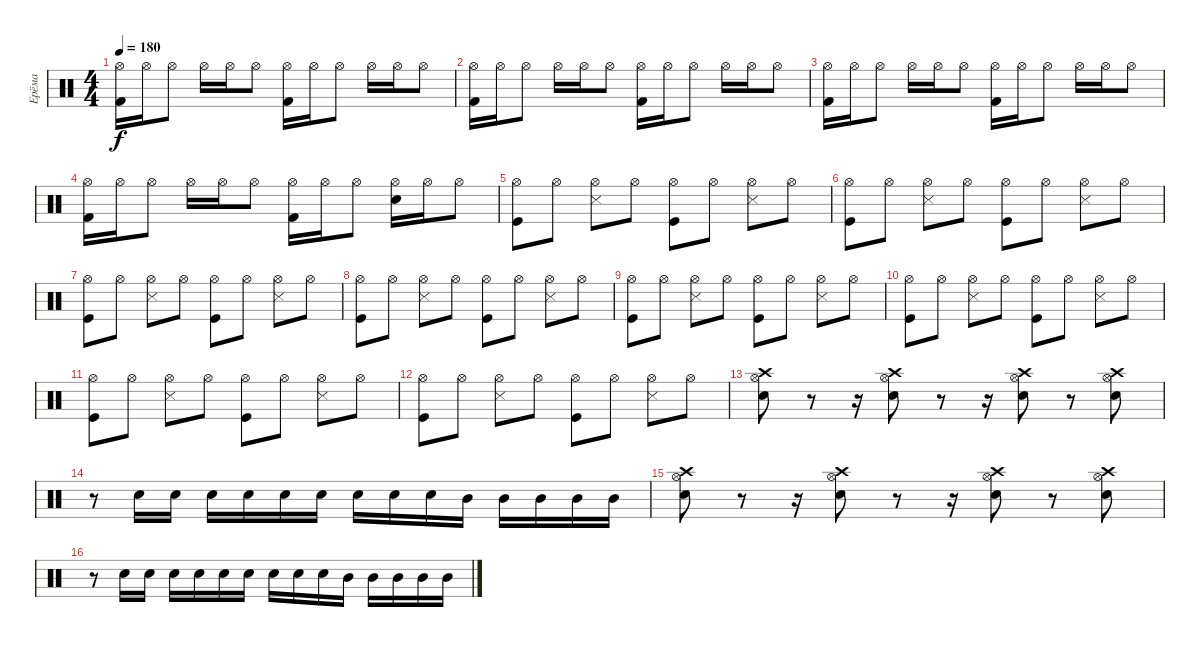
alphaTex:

\track ("Ерёма" "Ерёма") {instrument percussion}
\staff {score}
\articulation defaults
\ts (4 4)
\tempo 180
\clef neutral
\ks c
("Hi-Hat (open)" "Kick (hit) 2").16{dy f} "Hi-Hat (open)".16 "Hi-Hat (open)".8 "Hi-Hat (open)".16 "Hi-Hat (open)".16 "Hi-Hat (open)".8 ("Hi-Hat (open)" "Kick (hit) 2").16 "Hi-Hat (open)".16 "Hi-Hat (open)".8 "Hi-Hat (open)".16 "Hi-Hat (open)".16 "Hi-Hat (open)".8 |
("Hi-Hat (open)" "Kick (hit) 2").16 "Hi-Hat (open)".16 "Hi-Hat (open)".8 "Hi-Hat (open)".16 "Hi-Hat (open)".16 "Hi-Hat (open)".8 ("Hi-Hat (open)" "Kick (hit) 2").16 "Hi-Hat (open)".16 "Hi-Hat (open)".8 "Hi-Hat (open)".16 "Hi-Hat (open)".16 "Hi-Hat (open)".8 |
("Hi-Hat (open)" "Kick (hit) 2").16 "Hi-Hat (open)".16 "Hi-Hat (open)".8 "Hi-Hat (open)".16 "Hi-Hat (open)".16 "Hi-Hat (open)".8 ("Hi-Hat (open)" "Kick (hit) 2").16 "Hi-Hat (open)".16 "Hi-Hat (open)".8 "Hi-Hat (open)".16 "Hi-Hat (open)".16 "Hi-Hat (open)".8 |
("Hi-Hat (open)" "Kick (hit) 2").16 "Hi-Hat (open)".16 "Hi-Hat (open)".8 "Hi-Hat (open)".16 "Hi-Hat (open)".16 "Hi-Hat (open)".8 ("Hi-Hat (open)" "Kick (hit) 2").16 "Hi-Hat (open)".16 "Hi-Hat (open)".8 ("Hi-Hat (open)" "Electric Snare (hit)").16 "Hi-Hat (open)".16 "Hi-Hat (open)".8 |
("Hi-Hat (open)" "Kick (hit)").8 "Hi-Hat (open)".8 ("Hi-Hat (open)" "Snare (side stick) 3").8 "Hi-Hat (open)".8 ("Hi-Hat (open)" "Kick (hit)").8 "Hi-Hat (open)".8 ("Hi-Hat (open)" "Snare (side stick) 3").8 "Hi-Hat (open)".8 |
("Hi-Hat (open)" "Kick (hit)").8 "Hi-Hat (open)".8 ("Hi-Hat (open)" "Snare (side stick) 3").8 "Hi-Hat (open)".8 ("Hi-Hat (open)" "Kick (hit)").8 "Hi-Hat (open)".8 ("Hi-Hat (open)" "Snare (side stick) 3").8 "Hi-Hat (open)".8 |
("Hi-Hat (open)" "Kick (hit)").8 "Hi-Hat (open)".8 ("Hi-Hat (open)" "Snare (side stick) 3").8 "Hi-Hat (open)".8 ("Hi-Hat (open)" "Kick (hit)").8 "Hi-Hat (open)".8 ("Hi-Hat (open)" "Snare (side stick) 3").8 "Hi-Hat (open)".8 |
("Hi-Hat (open)" "Kick (hit)").8 "Hi-Hat (open)".8 ("Hi-Hat (open)" "Snare (side stick) 3").8 "Hi-Hat (open)".8 ("Hi-Hat (open)" "Kick (hit)").8 "Hi-Hat (open)".8 ("Hi-Hat (open)" "Snare (side stick) 3").8 "Hi-Hat (open)".8 |
("Hi-Hat (open)" "Kick (hit)").8 "Hi-Hat (open)".8 ("Hi-Hat (open)" "Snare (side stick) 3").8 "Hi-Hat (open)".8 ("Hi-Hat (open)" "Kick (hit)").8 "Hi-Hat (open)".8 ("Hi-Hat (open)" "Snare (side stick) 3").8 "Hi-Hat (open)".8 |
("Hi-Hat (open)" "Kick (hit)").8 "Hi-Hat (open)".8 ("Hi-Hat (open)" "Snare (side stick) 3").8 "Hi-Hat (open)".8 ("Hi-Hat (open)" "Kick (hit)").8 "Hi-Hat (open)".8 ("Hi-Hat (open)" "Snare (side stick) 3").8 "Hi-Hat (open)".8 |
("Hi-Hat (open)" "Kick (hit)").8 "Hi-Hat (open)".8 ("Hi-Hat (open)" "Snare (side stick) 3").8 "Hi-Hat (open)".8 ("Hi-Hat (open)" "Kick (hit)").8 "Hi-Hat (open)".8 ("Hi-Hat (open)" "Snare (side stick) 3").8 "Hi-Hat (open)".8 |
("Hi-Hat (open)" "Kick (hit)").8 "Hi-Hat (open)".8 ("Hi-Hat (open)" "Snare (side stick) 3").8 "Hi-Hat (open)".8 ("Hi-Hat (open)" "Kick (hit)").8 "Hi-Hat (open)".8 ("Hi-Hat (open)" "Snare (side stick) 3").8 "Hi-Hat (open)".8 |
("Hi-Hat (open)" "Electric Snare (hit)" "Crash high (hit)").8 r.8 r.16 ("Electric Snare (hit)" "Crash high (hit)" "Hi-Hat (open)").8 r.8 r.16 ("Electric Snare (hit)" "Crash high (hit)" "Hi-Hat (open)").8 r.8 ("Electric Snare (hit)" "Crash high (hit)" "Hi-Hat (open)").8 |
r.8 "Electric Snare (hit)".16 "Electric Snare (hit)".16 "Electric Snare (hit)".16 "Electric Snare (hit)".16 "Snare (hit) 2".16 "Snare (hit) 2".16 "Snare (hit) 2".16 "Snare (hit) 2".16 "Snare (hit) 2".16 "Mid Tom (hit)".16 "Mid Tom (hit)".16 "Mid Tom (hit)".16 "Mid Tom (hit)".16 "Mid Tom (hit)".16 |
("Hi-Hat (open)" "Electric Snare (hit)" "Crash high (hit)").8 r.8 r.16 ("Electric Snare (hit)" "Crash high (hit)" "Hi-Hat (open)").8 r.8 r.16 ("Electric Snare (hit)" "Crash high (hit)" "Hi-Hat (open)").8 r.8 ("Electric Snare (hit)" "Crash high (hit)" "Hi-Hat (open)").8 |
r.8 "Electric Snare (hit)".16 "Electric Snare (hit)".16 "Electric Snare (hit)".16 "Electric Snare (hit)".16 "Snare (hit) 2".16 "Snare (hit) 2".16 "Snare (hit) 2".16 "Snare (hit) 2".16 "Snare (hit) 2".16 "Mid Tom (hit)".16 "Mid Tom (hit)".16 "Mid Tom (hit)".16 "Mid Tom (hit)".16 "Mid Tom (hit)".16
